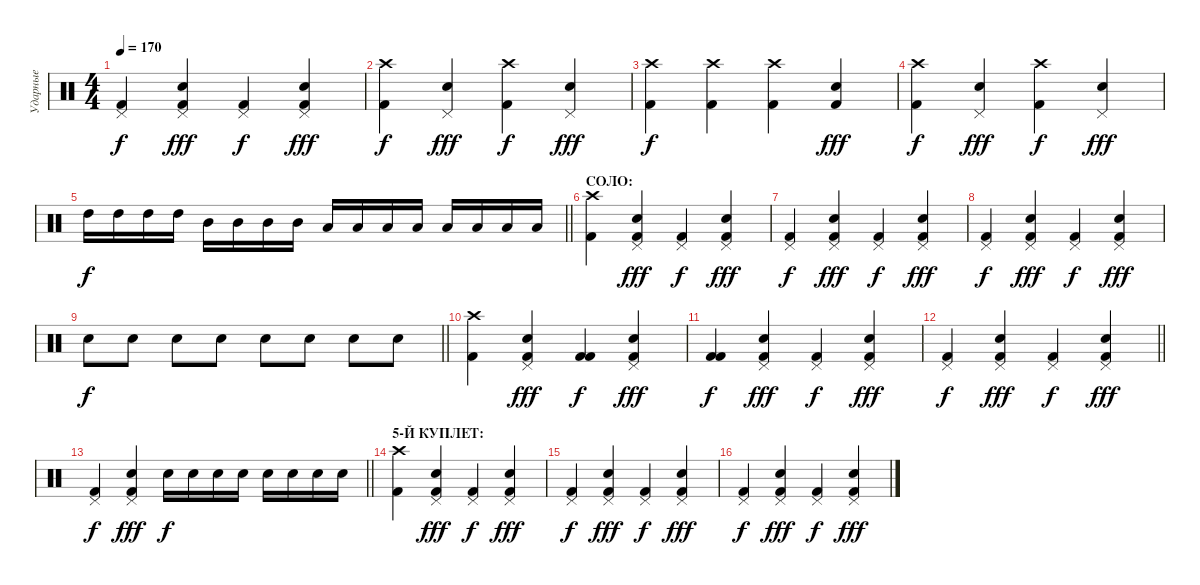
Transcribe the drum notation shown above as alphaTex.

\track ("Ударные" "Ударные") {instrument percussion}
\staff {score}
\articulation defaults
\ts (4 4)
\tempo 170
\clef neutral
\ks c
("Pedal Hi-Hat (hit)" "Kick (hit) 2").4{dy f} ("Pedal Hi-Hat (hit)" "Snare (hit) 2" "Kick (hit) 2").4{dy fff} ("Pedal Hi-Hat (hit)" "Kick (hit) 2").4{dy f} ("Pedal Hi-Hat (hit)" "Snare (hit) 2" "Kick (hit) 2").4{dy fff} |
("Crash high (hit)" "Kick (hit) 2").4{dy f} ("Pedal Hi-Hat (hit)" "Snare (hit) 2").4{dy fff} ("Crash high (hit)" "Kick (hit) 2").4{dy f} ("Pedal Hi-Hat (hit)" "Snare (hit) 2").4{dy fff} |
("Crash high (hit)" "Kick (hit) 2").4{dy f} ("Crash high (hit)" "Kick (hit) 2").4 ("Crash high (hit)" "Kick (hit) 2").4 ("Snare (hit) 2" "Kick (hit) 2").4{dy fff} |
("Crash high (hit)" "Kick (hit) 2").4{dy f} ("Pedal Hi-Hat (hit)" "Snare (hit) 2").4{dy fff} ("Crash high (hit)" "Kick (hit) 2").4{dy f} ("Pedal Hi-Hat (hit)" "Snare (hit) 2").4{dy fff} |
\barLineRight lightlight "High Tom (hit)".16{dy f} "High Tom (hit)".16 "High Tom (hit)".16 "High Tom (hit)".16 "Mid Tom (hit)".16 "Mid Tom (hit)".16 "Mid Tom (hit)".16 "Mid Tom (hit)".16 "Low Tom (hit)".16 "Low Tom (hit)".16 "Low Tom (hit)".16 "Low Tom (hit)".16 "Low Floor Tom (hit)".16 "Low Floor Tom (hit)".16 "Low Floor Tom (hit)".16 "Low Floor Tom (hit)".16
|
\section ("" "СОЛО:")
("Crash high (hit)" "Kick (hit) 2").4 ("Pedal Hi-Hat (hit)" "Snare (hit) 2" "Kick (hit) 2").4{dy fff} ("Pedal Hi-Hat (hit)" "Kick (hit) 2").4{dy f} ("Pedal Hi-Hat (hit)" "Snare (hit) 2" "Kick (hit) 2").4{dy fff} |
("Pedal Hi-Hat (hit)" "Kick (hit) 2").4{dy f} ("Pedal Hi-Hat (hit)" "Snare (hit) 2" "Kick (hit) 2").4{dy fff} ("Pedal Hi-Hat (hit)" "Kick (hit) 2").4{dy f} ("Pedal Hi-Hat (hit)" "Snare (hit) 2" "Kick (hit) 2").4{dy fff} |
("Pedal Hi-Hat (hit)" "Kick (hit) 2").4{dy f} ("Pedal Hi-Hat (hit)" "Snare (hit) 2" "Kick (hit) 2").4{dy fff} ("Pedal Hi-Hat (hit)" "Kick (hit) 2").4{dy f} ("Pedal Hi-Hat (hit)" "Snare (hit) 2" "Kick (hit) 2").4{dy fff} |
\barLineRight lightlight "Snare (hit) 2".8{dy f} "Snare (hit) 2".8 "Snare (hit) 2".8 "Snare (hit) 2".8 "Electric Snare (hit)".8 "Electric Snare (hit)".8 "Electric Snare (hit)".8 "Electric Snare (hit)".8
|
("Crash high (hit)" "Kick (hit) 2").4 ("Pedal Hi-Hat (hit)" "Snare (hit) 2" "Kick (hit) 2").4{dy fff} ("Kick (hit) 2" "Kick (hit) 2").4{dy f} ("Pedal Hi-Hat (hit)" "Snare (hit) 2" "Kick (hit) 2").4{dy fff} |
("Kick (hit) 2" "Kick (hit) 2").4{dy f} ("Pedal Hi-Hat (hit)" "Snare (hit) 2" "Kick (hit) 2").4{dy fff} ("Pedal Hi-Hat (hit)" "Kick (hit) 2").4{dy f} ("Pedal Hi-Hat (hit)" "Snare (hit) 2" "Kick (hit) 2").4{dy fff} |
\barLineRight lightlight
("Pedal Hi-Hat (hit)" "Kick (hit) 2").4{dy f} ("Pedal Hi-Hat (hit)" "Snare (hit) 2" "Kick (hit) 2").4{dy fff} ("Pedal Hi-Hat (hit)" "Kick (hit) 2").4{dy f} ("Pedal Hi-Hat (hit)" "Snare (hit) 2" "Kick (hit) 2").4{dy fff} |
\barLineRight lightlight
("Pedal Hi-Hat (hit)" "Kick (hit) 2").4{dy f} ("Pedal Hi-Hat (hit)" "Snare (hit) 2" "Kick (hit) 2").4{dy fff} "Snare (hit) 2".16{dy f} "Snare (hit) 2".16 "Snare (hit) 2".16 "Snare (hit) 2".16 "Electric Snare (hit)".16 "Electric Snare (hit)".16 "Electric Snare (hit)".16 "Electric Snare (hit)".16 |
\section ("" "5-Й КУПЛЕТ:")
("Crash high (hit)" "Kick (hit) 2").4 ("Pedal Hi-Hat (hit)" "Snare (hit) 2" "Kick (hit) 2").4{dy fff} ("Pedal Hi-Hat (hit)" "Kick (hit) 2").4{dy f} ("Pedal Hi-Hat (hit)" "Snare (hit) 2" "Kick (hit) 2").4{dy fff} |
("Pedal Hi-Hat (hit)" "Kick (hit) 2").4{dy f} ("Pedal Hi-Hat (hit)" "Snare (hit) 2" "Kick (hit) 2").4{dy fff} ("Pedal Hi-Hat (hit)" "Kick (hit) 2").4{dy f} ("Pedal Hi-Hat (hit)" "Snare (hit) 2" "Kick (hit) 2").4{dy fff} |
("Pedal Hi-Hat (hit)" "Kick (hit) 2").4{dy f} ("Pedal Hi-Hat (hit)" "Snare (hit) 2" "Kick (hit) 2").4{dy fff} ("Pedal Hi-Hat (hit)" "Kick (hit) 2").4{dy f} ("Pedal Hi-Hat (hit)" "Snare (hit) 2" "Kick (hit) 2").4{dy fff}
